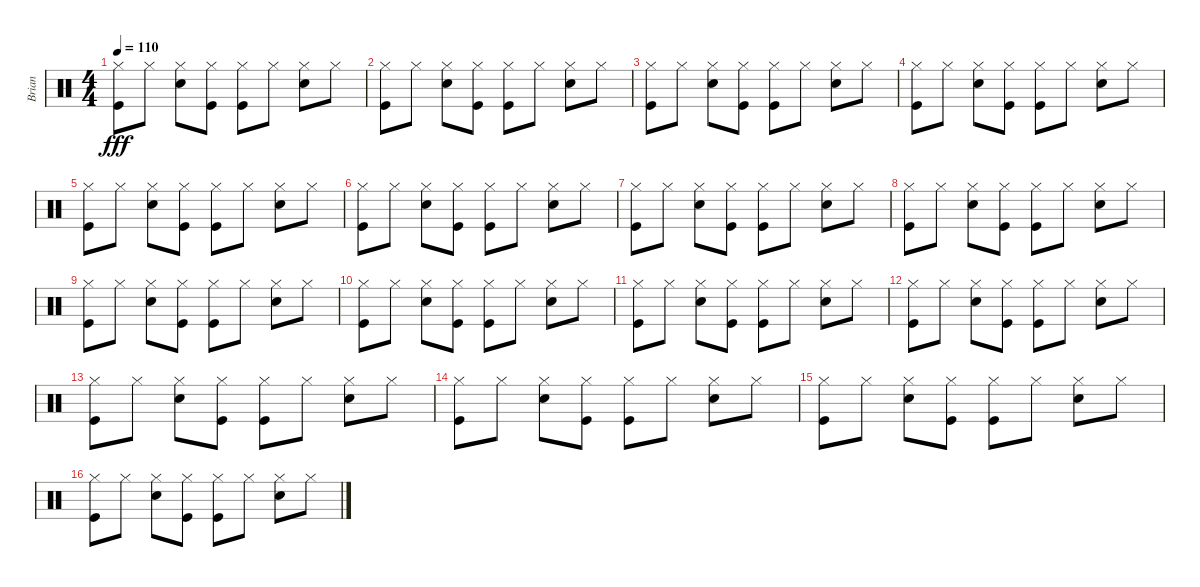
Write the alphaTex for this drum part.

\track ("Brian" "Brian") {instrument percussion}
\staff {score}
\articulation defaults
\ts (4 4)
\tempo 110
\clef neutral
\ks c
("Hi-Hat (closed)" "Kick (hit)").8{dy fff} "Hi-Hat (closed)".8 ("Hi-Hat (closed)" "Electric Snare (hit)").8 ("Hi-Hat (closed)" "Kick (hit)").8 ("Hi-Hat (closed)" "Kick (hit)").8 "Hi-Hat (closed)".8 ("Hi-Hat (closed)" "Electric Snare (hit)").8 "Hi-Hat (closed)".8 |
("Hi-Hat (closed)" "Kick (hit)").8 "Hi-Hat (closed)".8 ("Hi-Hat (closed)" "Electric Snare (hit)").8 ("Hi-Hat (closed)" "Kick (hit)").8 ("Hi-Hat (closed)" "Kick (hit)").8 "Hi-Hat (closed)".8 ("Hi-Hat (closed)" "Electric Snare (hit)").8 "Hi-Hat (closed)".8 |
("Hi-Hat (closed)" "Kick (hit)").8 "Hi-Hat (closed)".8 ("Hi-Hat (closed)" "Electric Snare (hit)").8 ("Hi-Hat (closed)" "Kick (hit)").8 ("Hi-Hat (closed)" "Kick (hit)").8 "Hi-Hat (closed)".8 ("Hi-Hat (closed)" "Electric Snare (hit)").8 "Hi-Hat (closed)".8 |
("Hi-Hat (closed)" "Kick (hit)").8 "Hi-Hat (closed)".8 ("Hi-Hat (closed)" "Electric Snare (hit)").8 ("Hi-Hat (closed)" "Kick (hit)").8 ("Hi-Hat (closed)" "Kick (hit)").8 "Hi-Hat (closed)".8 ("Hi-Hat (closed)" "Electric Snare (hit)").8 "Hi-Hat (closed)".8 |
("Hi-Hat (closed)" "Kick (hit)").8 "Hi-Hat (closed)".8 ("Hi-Hat (closed)" "Electric Snare (hit)").8 ("Hi-Hat (closed)" "Kick (hit)").8 ("Hi-Hat (closed)" "Kick (hit)").8 "Hi-Hat (closed)".8 ("Hi-Hat (closed)" "Electric Snare (hit)").8 "Hi-Hat (closed)".8 |
("Hi-Hat (closed)" "Kick (hit)").8 "Hi-Hat (closed)".8 ("Hi-Hat (closed)" "Electric Snare (hit)").8 ("Hi-Hat (closed)" "Kick (hit)").8 ("Hi-Hat (closed)" "Kick (hit)").8 "Hi-Hat (closed)".8 ("Hi-Hat (closed)" "Electric Snare (hit)").8 "Hi-Hat (closed)".8 |
("Hi-Hat (closed)" "Kick (hit)").8 "Hi-Hat (closed)".8 ("Hi-Hat (closed)" "Electric Snare (hit)").8 ("Hi-Hat (closed)" "Kick (hit)").8 ("Hi-Hat (closed)" "Kick (hit)").8 "Hi-Hat (closed)".8 ("Hi-Hat (closed)" "Electric Snare (hit)").8 "Hi-Hat (closed)".8 |
("Hi-Hat (closed)" "Kick (hit)").8 "Hi-Hat (closed)".8 ("Hi-Hat (closed)" "Electric Snare (hit)").8 ("Hi-Hat (closed)" "Kick (hit)").8 ("Hi-Hat (closed)" "Kick (hit)").8 "Hi-Hat (closed)".8 ("Hi-Hat (closed)" "Electric Snare (hit)").8 "Hi-Hat (closed)".8 |
("Hi-Hat (closed)" "Kick (hit)").8 "Hi-Hat (closed)".8 ("Hi-Hat (closed)" "Electric Snare (hit)").8 ("Hi-Hat (closed)" "Kick (hit)").8 ("Hi-Hat (closed)" "Kick (hit)").8 "Hi-Hat (closed)".8 ("Hi-Hat (closed)" "Electric Snare (hit)").8 "Hi-Hat (closed)".8 |
("Hi-Hat (closed)" "Kick (hit)").8 "Hi-Hat (closed)".8 ("Hi-Hat (closed)" "Electric Snare (hit)").8 ("Hi-Hat (closed)" "Kick (hit)").8 ("Hi-Hat (closed)" "Kick (hit)").8 "Hi-Hat (closed)".8 ("Hi-Hat (closed)" "Electric Snare (hit)").8 "Hi-Hat (closed)".8 |
("Hi-Hat (closed)" "Kick (hit)").8 "Hi-Hat (closed)".8 ("Hi-Hat (closed)" "Electric Snare (hit)").8 ("Hi-Hat (closed)" "Kick (hit)").8 ("Hi-Hat (closed)" "Kick (hit)").8 "Hi-Hat (closed)".8 ("Hi-Hat (closed)" "Electric Snare (hit)").8 "Hi-Hat (closed)".8 |
("Hi-Hat (closed)" "Kick (hit)").8 "Hi-Hat (closed)".8 ("Hi-Hat (closed)" "Electric Snare (hit)").8 ("Hi-Hat (closed)" "Kick (hit)").8 ("Hi-Hat (closed)" "Kick (hit)").8 "Hi-Hat (closed)".8 ("Hi-Hat (closed)" "Electric Snare (hit)").8 "Hi-Hat (closed)".8 |
("Hi-Hat (closed)" "Kick (hit)").8 "Hi-Hat (closed)".8 ("Hi-Hat (closed)" "Electric Snare (hit)").8 ("Hi-Hat (closed)" "Kick (hit)").8 ("Hi-Hat (closed)" "Kick (hit)").8 "Hi-Hat (closed)".8 ("Hi-Hat (closed)" "Electric Snare (hit)").8 "Hi-Hat (closed)".8 |
("Hi-Hat (closed)" "Kick (hit)").8 "Hi-Hat (closed)".8 ("Hi-Hat (closed)" "Electric Snare (hit)").8 ("Hi-Hat (closed)" "Kick (hit)").8 ("Hi-Hat (closed)" "Kick (hit)").8 "Hi-Hat (closed)".8 ("Hi-Hat (closed)" "Electric Snare (hit)").8 "Hi-Hat (closed)".8 |
("Hi-Hat (closed)" "Kick (hit)").8 "Hi-Hat (closed)".8 ("Hi-Hat (closed)" "Electric Snare (hit)").8 ("Hi-Hat (closed)" "Kick (hit)").8 ("Hi-Hat (closed)" "Kick (hit)").8 "Hi-Hat (closed)".8 ("Hi-Hat (closed)" "Electric Snare (hit)").8 "Hi-Hat (closed)".8 |
("Hi-Hat (closed)" "Kick (hit)").8 "Hi-Hat (closed)".8 ("Hi-Hat (closed)" "Electric Snare (hit)").8 ("Hi-Hat (closed)" "Kick (hit)").8 ("Hi-Hat (closed)" "Kick (hit)").8 "Hi-Hat (closed)".8 ("Hi-Hat (closed)" "Electric Snare (hit)").8 "Hi-Hat (closed)".8
